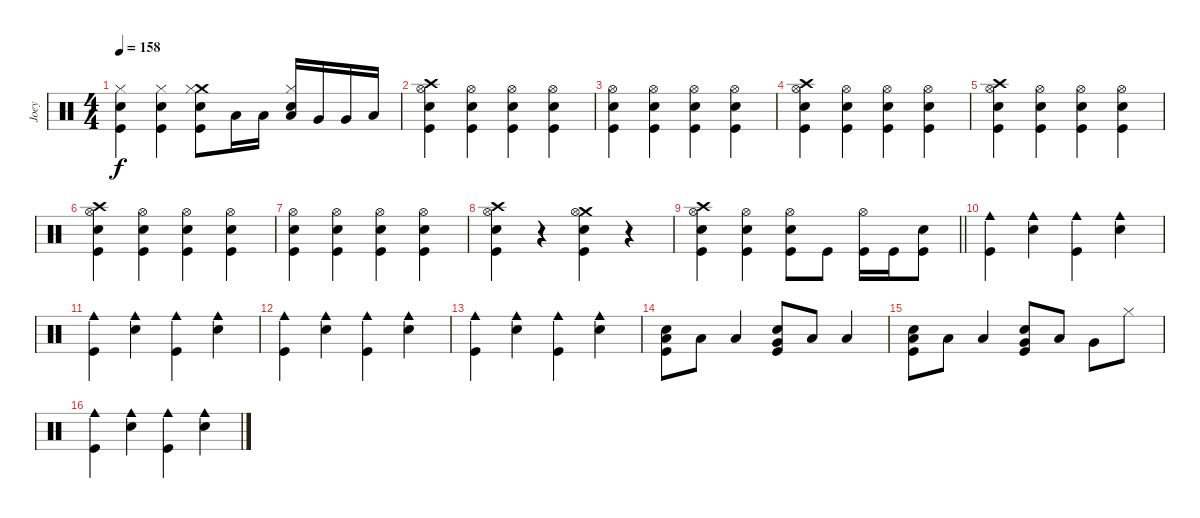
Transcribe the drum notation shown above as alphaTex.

\track ("Joey" "Joey") {instrument percussion}
\staff {score}
\articulation defaults
\ts (4 4)
\tempo 158
\clef neutral
\ks c
("Electric Snare (hit)" "Kick (hit)" "Hi-Hat (closed)").4{dy f} ("Electric Snare (hit)" "Kick (hit)" "Hi-Hat (closed)").4 ("Crash medium (hit)" "Electric Snare (hit)" "Kick (hit)" "Hi-Hat (closed)").8 "Low Tom (hit)".16 "Low Tom (hit)".16 ("Low Tom (hit)" "Electric Snare (hit)" "Hi-Hat (closed)").16 "Very Low Tom (hit)".16 "Very Low Tom (hit)".16 "Low Floor Tom (hit)".16 |
("Crash high (hit)" "Electric Snare (hit)" "Kick (hit)" "Hi-Hat (open)").4 ("Hi-Hat (open)" "Electric Snare (hit)" "Kick (hit)").4 ("Hi-Hat (open)" "Electric Snare (hit)" "Kick (hit)").4 ("Hi-Hat (open)" "Electric Snare (hit)" "Kick (hit)").4 |
("Hi-Hat (open)" "Electric Snare (hit)" "Kick (hit)").4 ("Hi-Hat (open)" "Electric Snare (hit)" "Kick (hit)").4 ("Hi-Hat (open)" "Electric Snare (hit)" "Kick (hit)").4 ("Hi-Hat (open)" "Electric Snare (hit)" "Kick (hit)").4 |
("Crash high (hit)" "Electric Snare (hit)" "Kick (hit)" "Hi-Hat (open)").4 ("Hi-Hat (open)" "Electric Snare (hit)" "Kick (hit)").4 ("Hi-Hat (open)" "Electric Snare (hit)" "Kick (hit)").4 ("Hi-Hat (open)" "Electric Snare (hit)" "Kick (hit)").4 |
("Crash high (hit)" "Electric Snare (hit)" "Kick (hit)" "Hi-Hat (open)").4 ("Hi-Hat (open)" "Electric Snare (hit)" "Kick (hit)").4 ("Hi-Hat (open)" "Electric Snare (hit)" "Kick (hit)").4 ("Hi-Hat (open)" "Electric Snare (hit)" "Kick (hit)").4 |
("Crash high (hit)" "Electric Snare (hit)" "Kick (hit)" "Hi-Hat (open)").4 ("Hi-Hat (open)" "Electric Snare (hit)" "Kick (hit)").4 ("Hi-Hat (open)" "Electric Snare (hit)" "Kick (hit)").4 ("Hi-Hat (open)" "Electric Snare (hit)" "Kick (hit)").4 |
("Hi-Hat (open)" "Electric Snare (hit)" "Kick (hit)").4 ("Hi-Hat (open)" "Electric Snare (hit)" "Kick (hit)").4 ("Hi-Hat (open)" "Electric Snare (hit)" "Kick (hit)").4 ("Hi-Hat (open)" "Electric Snare (hit)" "Kick (hit)").4 |
("Crash high (hit)" "Electric Snare (hit)" "Kick (hit)" "Hi-Hat (open)").4 r.4 ("Crash medium (hit)" "Electric Snare (hit)" "Kick (hit)" "Hi-Hat (open)").4 r.4 |
\barLineRight lightlight
("Crash high (hit)" "Electric Snare (hit)" "Kick (hit)" "Hi-Hat (open)").4 ("Hi-Hat (open)" "Electric Snare (hit)" "Kick (hit)").4 ("Hi-Hat (open)" "Electric Snare (hit)" "Kick (hit)").8 "Kick (hit)".8 ("Hi-Hat (open)" "Kick (hit)").16 "Kick (hit)".16 ("Electric Snare (hit)" "Kick (hit)").8 |
("Cowbell medium (hit)" "Kick (hit)").4 ("Cowbell medium (hit)" "Electric Snare (hit)").4 ("Cowbell medium (hit)" "Kick (hit)").4 ("Cowbell medium (hit)" "Electric Snare (hit)").4 |
("Cowbell medium (hit)" "Kick (hit)").4 ("Cowbell medium (hit)" "Electric Snare (hit)").4 ("Cowbell medium (hit)" "Kick (hit)").4 ("Cowbell medium (hit)" "Electric Snare (hit)").4 |
("Cowbell medium (hit)" "Kick (hit)").4 ("Cowbell medium (hit)" "Electric Snare (hit)").4 ("Cowbell medium (hit)" "Kick (hit)").4 ("Cowbell medium (hit)" "Electric Snare (hit)").4 |
("Cowbell medium (hit)" "Kick (hit)").4 ("Cowbell medium (hit)" "Electric Snare (hit)").4 ("Cowbell medium (hit)" "Kick (hit)").4 ("Cowbell medium (hit)" "Electric Snare (hit)").4 |
("Electric Snare (hit)" "Kick (hit)" "Low Floor Tom (hit)").8 "Low Floor Tom (hit)".8 "Low Floor Tom (hit)".4 ("Electric Snare (hit)" "Kick (hit)" "Very Low Tom (hit)").8 "Low Floor Tom (hit)".8 "Low Floor Tom (hit)".4 |
("Electric Snare (hit)" "Kick (hit)" "Low Floor Tom (hit)").8 "Low Floor Tom (hit)".8 "Low Floor Tom (hit)".4 ("Electric Snare (hit)" "Kick (hit)" "Very Low Tom (hit)").8 "Low Floor Tom (hit)".8 "Very Low Tom (hit)".8 "Hi-Hat (closed)".8 |
("Cowbell medium (hit)" "Kick (hit)").4 ("Cowbell medium (hit)" "Electric Snare (hit)").4 ("Cowbell medium (hit)" "Kick (hit)").4 ("Cowbell medium (hit)" "Electric Snare (hit)").4
